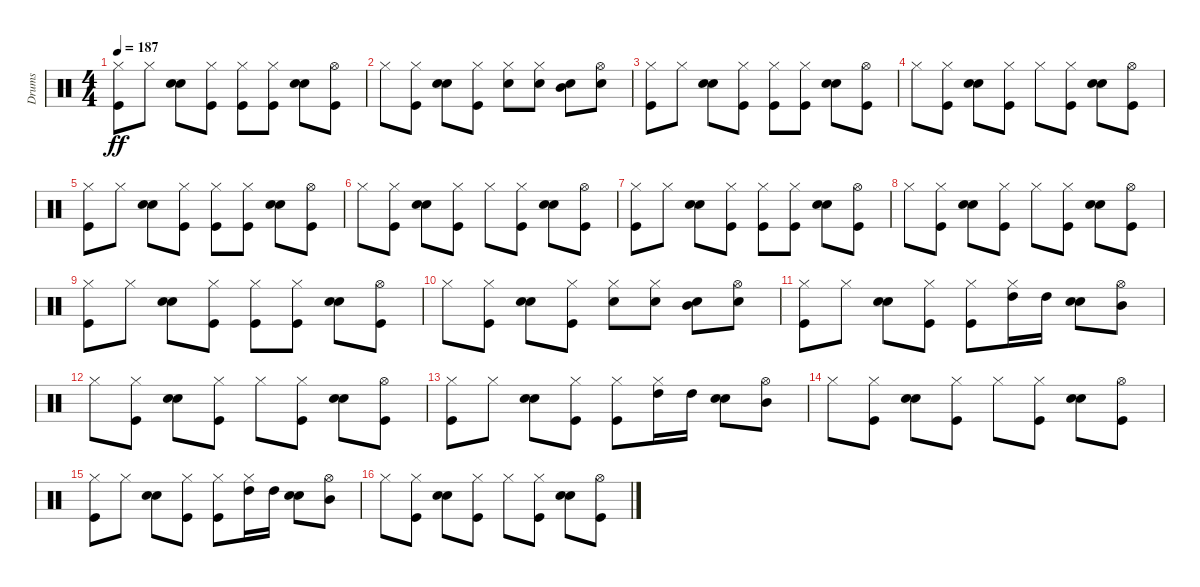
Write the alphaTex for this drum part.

\track ("Drums" "Drums") {instrument percussion}
\staff {score}
\articulation defaults
\ts (4 4)
\tempo 187
\clef neutral
\ks c
("Kick (hit)" "Hi-Hat (closed)").8{dy ff} "Hi-Hat (closed)".8 ("Snare (hit) 2" "Electric Snare (hit)").8 ("Kick (hit)" "Hi-Hat (closed)").8 ("Kick (hit)" "Hi-Hat (closed)").8 ("Kick (hit)" "Hi-Hat (closed)").8 ("Snare (hit) 2" "Electric Snare (hit)").8 ("Kick (hit)" "Hi-Hat (open)").8 |
"Hi-Hat (closed)".8 ("Kick (hit)" "Hi-Hat (closed)").8 ("Snare (hit) 2" "Electric Snare (hit)").8 ("Kick (hit)" "Hi-Hat (closed)").8 ("Electric Snare (hit)" "Hi-Hat (closed)").8 ("Electric Snare (hit)" "Hi-Hat (closed)").8 ("Snare (hit) 2" "Mid Tom (hit)").8 ("Electric Snare (hit)" "Hi-Hat (open)").8 |
("Kick (hit)" "Hi-Hat (closed)").8 "Hi-Hat (closed)".8 ("Snare (hit) 2" "Electric Snare (hit)").8 ("Kick (hit)" "Hi-Hat (closed)").8 ("Kick (hit)" "Hi-Hat (closed)").8 ("Kick (hit)" "Hi-Hat (closed)").8 ("Snare (hit) 2" "Electric Snare (hit)").8 ("Kick (hit)" "Hi-Hat (open)").8 |
"Hi-Hat (closed)".8 ("Kick (hit)" "Hi-Hat (closed)").8 ("Snare (hit) 2" "Electric Snare (hit)").8 ("Kick (hit)" "Hi-Hat (closed)").8 "Hi-Hat (closed)".8 ("Kick (hit)" "Hi-Hat (closed)").8 ("Snare (hit) 2" "Electric Snare (hit)").8 ("Kick (hit)" "Hi-Hat (open)").8 |
("Kick (hit)" "Hi-Hat (closed)").8 "Hi-Hat (closed)".8 ("Snare (hit) 2" "Electric Snare (hit)").8 ("Kick (hit)" "Hi-Hat (closed)").8 ("Kick (hit)" "Hi-Hat (closed)").8 ("Kick (hit)" "Hi-Hat (closed)").8 ("Snare (hit) 2" "Electric Snare (hit)").8 ("Kick (hit)" "Hi-Hat (open)").8 |
"Hi-Hat (closed)".8 ("Kick (hit)" "Hi-Hat (closed)").8 ("Snare (hit) 2" "Electric Snare (hit)").8 ("Kick (hit)" "Hi-Hat (closed)").8 "Hi-Hat (closed)".8 ("Kick (hit)" "Hi-Hat (closed)").8 ("Snare (hit) 2" "Electric Snare (hit)").8 ("Kick (hit)" "Hi-Hat (open)").8 |
("Kick (hit)" "Hi-Hat (closed)").8 "Hi-Hat (closed)".8 ("Snare (hit) 2" "Electric Snare (hit)").8 ("Kick (hit)" "Hi-Hat (closed)").8 ("Kick (hit)" "Hi-Hat (closed)").8 ("Kick (hit)" "Hi-Hat (closed)").8 ("Snare (hit) 2" "Electric Snare (hit)").8 ("Kick (hit)" "Hi-Hat (open)").8 |
"Hi-Hat (closed)".8 ("Kick (hit)" "Hi-Hat (closed)").8 ("Snare (hit) 2" "Electric Snare (hit)").8 ("Kick (hit)" "Hi-Hat (closed)").8 "Hi-Hat (closed)".8 ("Kick (hit)" "Hi-Hat (closed)").8 ("Snare (hit) 2" "Electric Snare (hit)").8 ("Kick (hit)" "Hi-Hat (open)").8 |
("Kick (hit)" "Hi-Hat (closed)").8 "Hi-Hat (closed)".8 ("Snare (hit) 2" "Electric Snare (hit)").8 ("Kick (hit)" "Hi-Hat (closed)").8 ("Kick (hit)" "Hi-Hat (closed)").8 ("Kick (hit)" "Hi-Hat (closed)").8 ("Snare (hit) 2" "Electric Snare (hit)").8 ("Kick (hit)" "Hi-Hat (open)").8 |
"Hi-Hat (closed)".8 ("Kick (hit)" "Hi-Hat (closed)").8 ("Snare (hit) 2" "Electric Snare (hit)").8 ("Kick (hit)" "Hi-Hat (closed)").8 ("Electric Snare (hit)" "Hi-Hat (closed)").8 ("Electric Snare (hit)" "Hi-Hat (closed)").8 ("Snare (hit) 2" "Mid Tom (hit)").8 ("Electric Snare (hit)" "Hi-Hat (open)").8 |
("Kick (hit)" "Hi-Hat (closed)").8 "Hi-Hat (closed)".8 ("Snare (hit) 2" "Electric Snare (hit)").8 ("Kick (hit)" "Hi-Hat (closed)").8 ("Kick (hit)" "Hi-Hat (closed)").8 ("Hi-Hat (closed)" "High Tom (hit)").16 "High Tom (hit)".16 ("Snare (hit) 2" "Electric Snare (hit)").8 ("Hi-Hat (open)" "Mid Tom (hit)").8 |
"Hi-Hat (closed)".8 ("Kick (hit)" "Hi-Hat (closed)").8 ("Snare (hit) 2" "Electric Snare (hit)").8 ("Kick (hit)" "Hi-Hat (closed)").8 "Hi-Hat (closed)".8 ("Kick (hit)" "Hi-Hat (closed)").8 ("Snare (hit) 2" "Electric Snare (hit)").8 ("Kick (hit)" "Hi-Hat (open)").8 |
("Kick (hit)" "Hi-Hat (closed)").8 "Hi-Hat (closed)".8 ("Snare (hit) 2" "Electric Snare (hit)").8 ("Kick (hit)" "Hi-Hat (closed)").8 ("Kick (hit)" "Hi-Hat (closed)").8 ("Hi-Hat (closed)" "High Tom (hit)").16 "High Tom (hit)".16 ("Snare (hit) 2" "Electric Snare (hit)").8 ("Hi-Hat (open)" "Mid Tom (hit)").8 |
"Hi-Hat (closed)".8 ("Kick (hit)" "Hi-Hat (closed)").8 ("Snare (hit) 2" "Electric Snare (hit)").8 ("Kick (hit)" "Hi-Hat (closed)").8 "Hi-Hat (closed)".8 ("Kick (hit)" "Hi-Hat (closed)").8 ("Snare (hit) 2" "Electric Snare (hit)").8 ("Kick (hit)" "Hi-Hat (open)").8 |
("Kick (hit)" "Hi-Hat (closed)").8 "Hi-Hat (closed)".8 ("Snare (hit) 2" "Electric Snare (hit)").8 ("Kick (hit)" "Hi-Hat (closed)").8 ("Kick (hit)" "Hi-Hat (closed)").8 ("Hi-Hat (closed)" "High Tom (hit)").16 "High Tom (hit)".16 ("Snare (hit) 2" "Electric Snare (hit)").8 ("Hi-Hat (open)" "Mid Tom (hit)").8 |
"Hi-Hat (closed)".8 ("Kick (hit)" "Hi-Hat (closed)").8 ("Snare (hit) 2" "Electric Snare (hit)").8 ("Kick (hit)" "Hi-Hat (closed)").8 "Hi-Hat (closed)".8 ("Kick (hit)" "Hi-Hat (closed)").8 ("Snare (hit) 2" "Electric Snare (hit)").8 ("Kick (hit)" "Hi-Hat (open)").8
